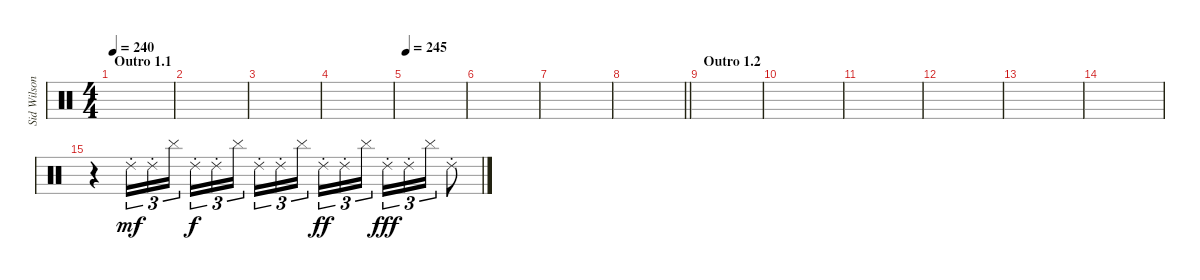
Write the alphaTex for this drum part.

\track ("Sid Wilson" "Sid Wilson") {instrument percussion}
\staff {score}
\articulation defaults
\ts (4 4)
\section ("" "Outro 1.1")
\tempo 240
\clef neutral
\ks c
|
|
|
|
\tempo 245
|
|
|
\barLineRight lightlight
|
\section ("" "Outro 1.2")
|
|
|
|
|
|
r.4 "Ride (choke) 2".16{tu (3 2) dy mf} "Ride (choke) 2".16{tu (3 2)} "Cymbal (hit)".16{tu (3 2) beam splitsecondary} "Ride (choke) 2".16{tu (3 2) dy f} "Ride (choke) 2".16{tu (3 2)} "Cymbal (hit)".16{tu (3 2)} "Ride (choke) 2".16{tu (3 2)} "Ride (choke) 2".16{tu (3 2)} "Cymbal (hit)".16{tu (3 2) beam splitsecondary} "Ride (choke) 2".16{tu (3 2) dy ff} "Ride (choke) 2".16{tu (3 2)} "Cymbal (hit)".16{tu (3 2)} "Ride (choke) 2".16{tu (3 2) dy fff} "Ride (choke) 2".16{tu (3 2)} "Cymbal (hit)".16{tu (3 2)} "Ride (choke) 2".8
